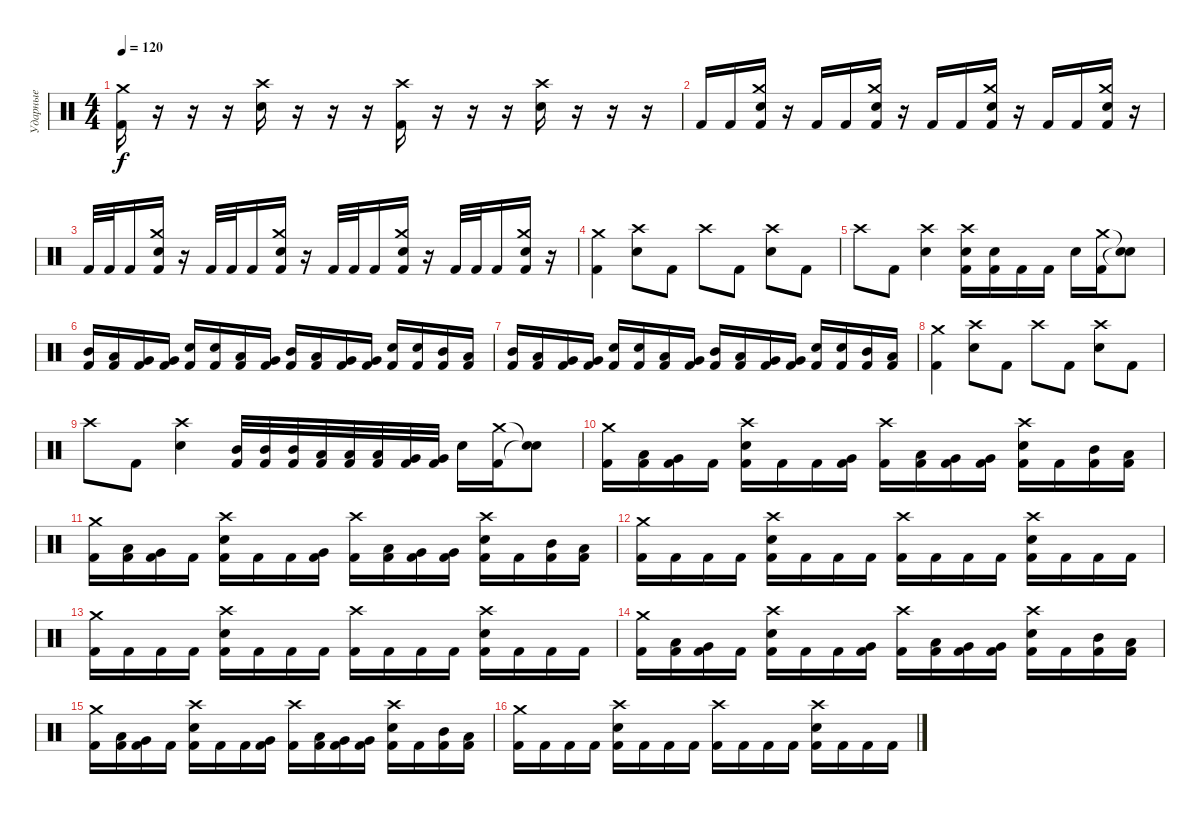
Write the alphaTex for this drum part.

\track ("Ударные" "Ударные") {instrument percussion}
\staff {score}
\articulation defaults
\ts (4 4)
\tempo 120
\clef neutral
\ks c
("Kick (hit) 2" "Crash medium (hit)").16{dy f} r.16 r.16 r.16 ("Electric Snare (hit)" "Crash high (hit)").16 r.16 r.16 r.16 ("Kick (hit) 2" "Crash high (hit)").16 r.16 r.16 r.16 ("Electric Snare (hit)" "Crash high (hit)").16 r.16 r.16 r.16 |
"Kick (hit) 2".16 "Kick (hit) 2".16 ("Kick (hit) 2" "Crash medium (hit)" "Electric Snare (hit)").16 r.16 "Kick (hit) 2".16 "Kick (hit) 2".16 ("Kick (hit) 2" "Crash medium (hit)" "Electric Snare (hit)").16 r.16 "Kick (hit) 2".16 "Kick (hit) 2".16 ("Kick (hit) 2" "Crash medium (hit)" "Electric Snare (hit)").16 r.16 "Kick (hit) 2".16 "Kick (hit) 2".16 ("Kick (hit) 2" "Crash medium (hit)" "Electric Snare (hit)").16 r.16 |
"Kick (hit) 2".32 "Kick (hit) 2".32 "Kick (hit) 2".16 ("Kick (hit) 2" "Crash medium (hit)" "Electric Snare (hit)").16 r.16 "Kick (hit) 2".32 "Kick (hit) 2".32 "Kick (hit) 2".16 ("Kick (hit) 2" "Crash medium (hit)" "Electric Snare (hit)").16 r.16 "Kick (hit) 2".32 "Kick (hit) 2".32 "Kick (hit) 2".16 ("Kick (hit) 2" "Crash medium (hit)" "Electric Snare (hit)").16 r.16 "Kick (hit) 2".32 "Kick (hit) 2".32 "Kick (hit) 2".16 ("Kick (hit) 2" "Crash medium (hit)" "Electric Snare (hit)").16 r.16 |
("Kick (hit) 2" "Crash medium (hit)").4 ("Electric Snare (hit)" "Crash high (hit)").8 "Kick (hit) 2".8 "Crash high (hit)".8 "Kick (hit) 2".8 ("Electric Snare (hit)" "Crash high (hit)").8 "Kick (hit) 2".8 |
"Crash high (hit)".8 "Kick (hit) 2".8 ("Electric Snare (hit)" "Crash high (hit)").4 ("Electric Snare (hit)" "Kick (hit) 2" "Crash high (hit)").16 ("Electric Snare (hit)" "Kick (hit) 2").16 "Kick (hit) 2".16 "Kick (hit) 2".16 "Electric Snare (hit)".16 ("Crash medium (hit)" "Kick (hit) 2").16 ("Snare (hit)"{t} "Snare (hit)"{t}).8 |
("Kick (hit) 2" "Mid Tom (hit)").16 ("Kick (hit) 2" "Low Tom (hit)").16 ("Kick (hit) 2" "Very Low Tom (hit)").16 ("Kick (hit) 2" "Very Low Tom (hit)").16 ("Kick (hit) 2" "Electric Snare (hit)").16 ("Kick (hit) 2" "Electric Snare (hit)").16 ("Kick (hit) 2" "Low Tom (hit)").16 ("Kick (hit) 2" "Very Low Tom (hit)").16 ("Kick (hit) 2" "Mid Tom (hit)").16 ("Kick (hit) 2" "Low Tom (hit)").16 ("Kick (hit) 2" "Very Low Tom (hit)").16 ("Kick (hit) 2" "Very Low Tom (hit)").16 ("Kick (hit) 2" "Electric Snare (hit)").16 ("Kick (hit) 2" "Electric Snare (hit)").16 ("Kick (hit) 2" "Mid Tom (hit)").16 ("Kick (hit) 2" "Low Tom (hit)").16 |
("Kick (hit) 2" "Mid Tom (hit)").16 ("Kick (hit) 2" "Low Tom (hit)").16 ("Kick (hit) 2" "Very Low Tom (hit)").16 ("Kick (hit) 2" "Very Low Tom (hit)").16 ("Kick (hit) 2" "Electric Snare (hit)").16 ("Kick (hit) 2" "Electric Snare (hit)").16 ("Kick (hit) 2" "Low Tom (hit)").16 ("Kick (hit) 2" "Very Low Tom (hit)").16 ("Kick (hit) 2" "Mid Tom (hit)").16 ("Kick (hit) 2" "Low Tom (hit)").16 ("Kick (hit) 2" "Very Low Tom (hit)").16 ("Kick (hit) 2" "Very Low Tom (hit)").16 ("Kick (hit) 2" "Electric Snare (hit)").16 ("Kick (hit) 2" "Electric Snare (hit)").16 ("Kick (hit) 2" "Mid Tom (hit)").16 ("Kick (hit) 2" "Low Tom (hit)").16 |
("Kick (hit) 2" "Crash medium (hit)").4 ("Electric Snare (hit)" "Crash high (hit)").8 "Kick (hit) 2".8 "Crash high (hit)".8 "Kick (hit) 2".8 ("Electric Snare (hit)" "Crash high (hit)").8 "Kick (hit) 2".8 |
"Crash high (hit)".8 "Kick (hit) 2".8 ("Electric Snare (hit)" "Crash high (hit)").4 ("Mid Tom (hit)" "Kick (hit) 2").32 ("Mid Tom (hit)" "Kick (hit) 2").32 ("Mid Tom (hit)" "Kick (hit) 2").32 ("Low Tom (hit)" "Kick (hit) 2").32 ("Low Tom (hit)" "Kick (hit) 2").32 ("Low Tom (hit)" "Kick (hit) 2").32 ("Very Low Tom (hit)" "Kick (hit) 2").32 ("Very Low Tom (hit)" "Kick (hit) 2").32 "Electric Snare (hit)".16 ("Crash medium (hit)" "Kick (hit) 2").16 ("Snare (hit)"{t} "Snare (hit)"{t}).8 |
("Kick (hit) 2" "Crash medium (hit)").16 ("Kick (hit) 2" "Low Tom (hit)").16 ("Kick (hit) 2" "Very Low Tom (hit)").16 "Kick (hit) 2".16 ("Kick (hit) 2" "Electric Snare (hit)" "Crash high (hit)").16 "Kick (hit) 2".16 "Kick (hit) 2".16 ("Kick (hit) 2" "Very Low Tom (hit)").16 ("Kick (hit) 2" "Crash high (hit)").16 ("Kick (hit) 2" "Low Tom (hit)").16 ("Kick (hit) 2" "Very Low Tom (hit)").16 ("Kick (hit) 2" "Very Low Tom (hit)").16 ("Kick (hit) 2" "Electric Snare (hit)" "Crash high (hit)").16 "Kick (hit) 2".16 ("Kick (hit) 2" "Mid Tom (hit)").16 ("Kick (hit) 2" "Low Tom (hit)").16 |
("Kick (hit) 2" "Crash medium (hit)").16 ("Kick (hit) 2" "Low Tom (hit)").16 ("Kick (hit) 2" "Very Low Tom (hit)").16 "Kick (hit) 2".16 ("Kick (hit) 2" "Electric Snare (hit)" "Crash high (hit)").16 "Kick (hit) 2".16 "Kick (hit) 2".16 ("Kick (hit) 2" "Very Low Tom (hit)").16 ("Kick (hit) 2" "Crash high (hit)").16 ("Kick (hit) 2" "Low Tom (hit)").16 ("Kick (hit) 2" "Very Low Tom (hit)").16 ("Kick (hit) 2" "Very Low Tom (hit)").16 ("Kick (hit) 2" "Electric Snare (hit)" "Crash high (hit)").16 "Kick (hit) 2".16 ("Kick (hit) 2" "Mid Tom (hit)").16 ("Kick (hit) 2" "Low Tom (hit)").16 |
("Kick (hit) 2" "Crash medium (hit)").16 "Kick (hit) 2".16 "Kick (hit) 2".16 "Kick (hit) 2".16 ("Kick (hit) 2" "Electric Snare (hit)" "Crash high (hit)").16 "Kick (hit) 2".16 "Kick (hit) 2".16 "Kick (hit) 2".16 ("Kick (hit) 2" "Crash high (hit)").16 "Kick (hit) 2".16 "Kick (hit) 2".16 "Kick (hit) 2".16 ("Kick (hit) 2" "Electric Snare (hit)" "Crash high (hit)").16 "Kick (hit) 2".16 "Kick (hit) 2".16 "Kick (hit) 2".16 |
("Kick (hit) 2" "Crash medium (hit)").16 "Kick (hit) 2".16 "Kick (hit) 2".16 "Kick (hit) 2".16 ("Kick (hit) 2" "Electric Snare (hit)" "Crash high (hit)").16 "Kick (hit) 2".16 "Kick (hit) 2".16 "Kick (hit) 2".16 ("Kick (hit) 2" "Crash high (hit)").16 "Kick (hit) 2".16 "Kick (hit) 2".16 "Kick (hit) 2".16 ("Kick (hit) 2" "Electric Snare (hit)" "Crash high (hit)").16 "Kick (hit) 2".16 "Kick (hit) 2".16 "Kick (hit) 2".16 |
("Kick (hit) 2" "Crash medium (hit)").16 ("Kick (hit) 2" "Low Tom (hit)").16 ("Kick (hit) 2" "Very Low Tom (hit)").16 "Kick (hit) 2".16 ("Kick (hit) 2" "Electric Snare (hit)" "Crash high (hit)").16 "Kick (hit) 2".16 "Kick (hit) 2".16 ("Kick (hit) 2" "Very Low Tom (hit)").16 ("Kick (hit) 2" "Crash high (hit)").16 ("Kick (hit) 2" "Low Tom (hit)").16 ("Kick (hit) 2" "Very Low Tom (hit)").16 ("Kick (hit) 2" "Very Low Tom (hit)").16 ("Kick (hit) 2" "Electric Snare (hit)" "Crash high (hit)").16 "Kick (hit) 2".16 ("Kick (hit) 2" "Mid Tom (hit)").16 ("Kick (hit) 2" "Low Tom (hit)").16 |
("Kick (hit) 2" "Crash medium (hit)").16 ("Kick (hit) 2" "Low Tom (hit)").16 ("Kick (hit) 2" "Very Low Tom (hit)").16 "Kick (hit) 2".16 ("Kick (hit) 2" "Electric Snare (hit)" "Crash high (hit)").16 "Kick (hit) 2".16 "Kick (hit) 2".16 ("Kick (hit) 2" "Very Low Tom (hit)").16 ("Kick (hit) 2" "Crash high (hit)").16 ("Kick (hit) 2" "Low Tom (hit)").16 ("Kick (hit) 2" "Very Low Tom (hit)").16 ("Kick (hit) 2" "Very Low Tom (hit)").16 ("Kick (hit) 2" "Electric Snare (hit)" "Crash high (hit)").16 "Kick (hit) 2".16 ("Kick (hit) 2" "Mid Tom (hit)").16 ("Kick (hit) 2" "Low Tom (hit)").16 |
("Kick (hit) 2" "Crash medium (hit)").16 "Kick (hit) 2".16 "Kick (hit) 2".16 "Kick (hit) 2".16 ("Kick (hit) 2" "Electric Snare (hit)" "Crash high (hit)").16 "Kick (hit) 2".16 "Kick (hit) 2".16 "Kick (hit) 2".16 ("Kick (hit) 2" "Crash high (hit)").16 "Kick (hit) 2".16 "Kick (hit) 2".16 "Kick (hit) 2".16 ("Kick (hit) 2" "Electric Snare (hit)" "Crash high (hit)").16 "Kick (hit) 2".16 "Kick (hit) 2".16 "Kick (hit) 2".16
